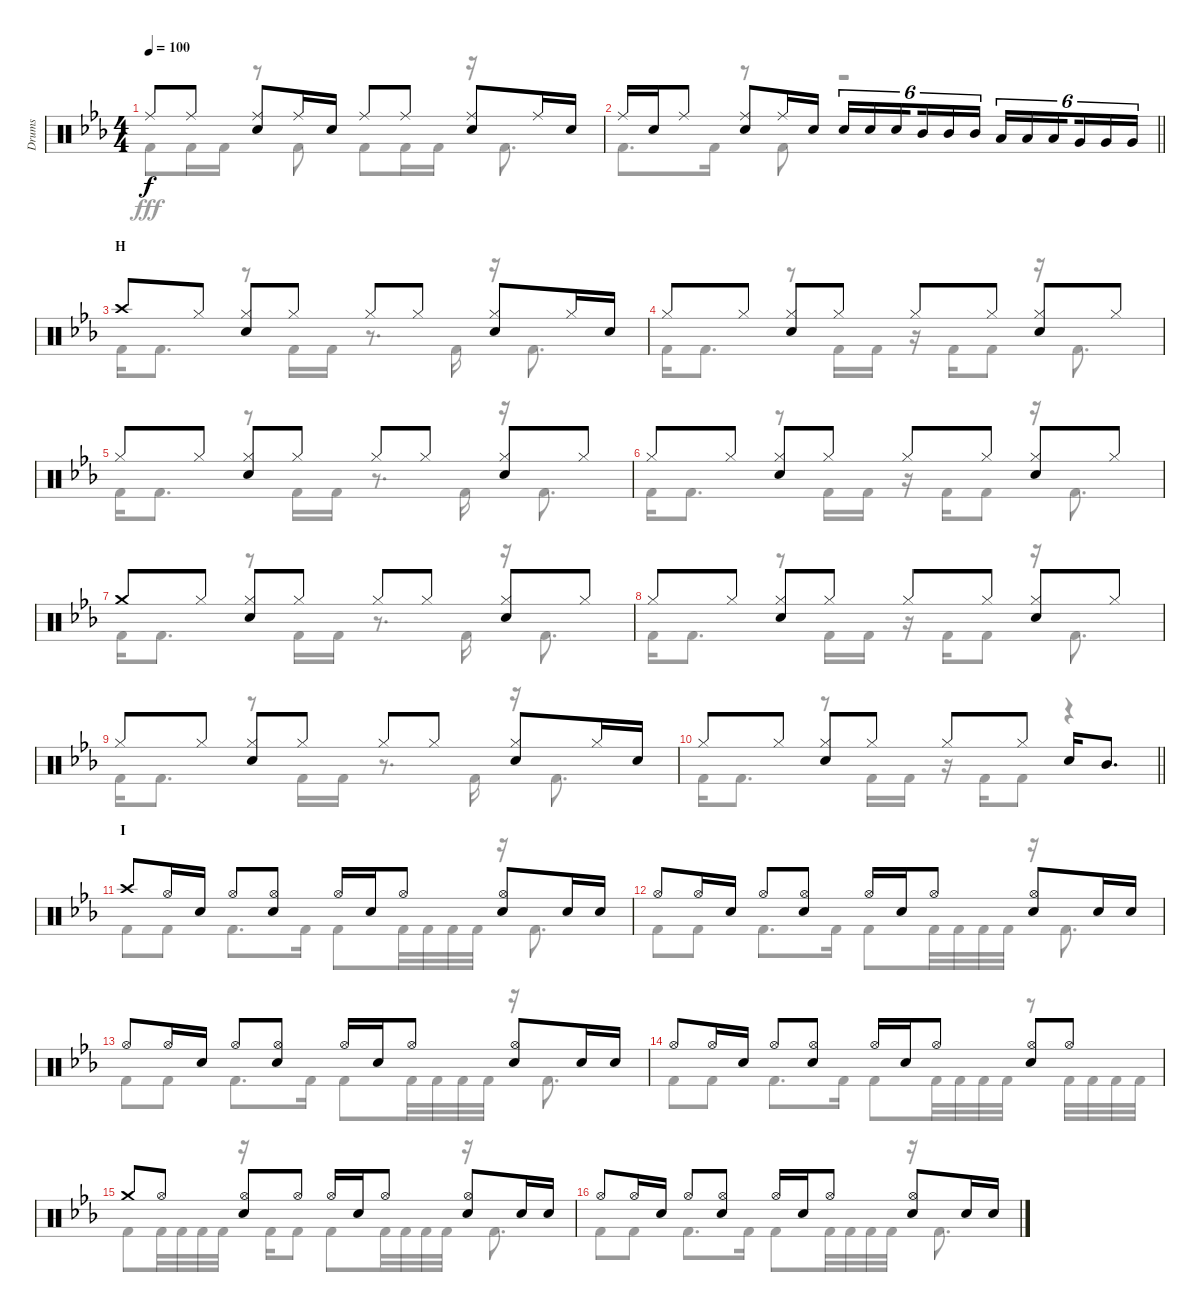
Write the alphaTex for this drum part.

\track ("Drums" "Drums") {instrument percussion}
\staff {score}
\articulation defaults
\voice
\ts (4 4)
\tempo 100
\clef neutral
\ks eb "Ride (middle)".8{dy f} "Ride (middle)".8
("Ride (middle)" "Snare (hit) 2").8 "Ride (middle)".16 "Snare (hit) 2".16 "Ride (middle)".8 "Ride (middle)".8 ("Ride (middle)" "Snare (hit) 2").8 "Ride (middle)".16 "Snare (hit) 2".16 |
\barLineRight lightlight "Ride (middle)".16 "Snare (hit) 2".16 "Ride (middle)".8
("Ride (middle)" "Snare (hit) 2").8 "Ride (middle)".16 "Snare (hit) 2".16 "Snare (hit) 2".16{tu (6 4)} "Snare (hit) 2".16{tu (6 4)} "Snare (hit) 2".16{tu (6 4) beam splitsecondary} "Mid Tom (hit)".16{tu (6 4)} "Mid Tom (hit)".16{tu (6 4)} "Mid Tom (hit)".16{tu (6 4)} "Low Tom (hit)".16{tu (6 4)} "Low Tom (hit)".16{tu (6 4)} "Low Tom (hit)".16{tu (6 4) beam splitsecondary} "Very Low Tom (hit)".16{tu (6 4)} "Very Low Tom (hit)".16{tu (6 4)} "Very Low Tom (hit)".16{tu (6 4)} |
\section ("" "H")
"Crash high (hit)".8 "Hi-Hat (closed)".8 ("Hi-Hat (closed)" "Snare (hit) 2").8 "Hi-Hat (closed)".8 "Hi-Hat (closed)".8 "Hi-Hat (closed)".8 ("Hi-Hat (closed)" "Snare (hit) 2").8 "Hi-Hat (closed)".16 "Snare (hit) 2".16 |
"Hi-Hat (closed)".8 "Hi-Hat (closed)".8 ("Hi-Hat (closed)" "Snare (hit) 2").8 "Hi-Hat (closed)".8 "Hi-Hat (closed)".8 "Hi-Hat (closed)".8 ("Hi-Hat (closed)" "Snare (hit) 2").8 "Hi-Hat (closed)".8 |
"Hi-Hat (closed)".8 "Hi-Hat (closed)".8 ("Hi-Hat (closed)" "Snare (hit) 2").8 "Hi-Hat (closed)".8 "Hi-Hat (closed)".8 "Hi-Hat (closed)".8 ("Hi-Hat (closed)" "Snare (hit) 2").8 "Hi-Hat (closed)".8 |
"Hi-Hat (closed)".8 "Hi-Hat (closed)".8 ("Hi-Hat (closed)" "Snare (hit) 2").8 "Hi-Hat (closed)".8 "Hi-Hat (closed)".8 "Hi-Hat (closed)".8 ("Hi-Hat (closed)" "Snare (hit) 2").8 "Hi-Hat (closed)".8 |
"Crash medium (hit)".8 "Hi-Hat (closed)".8 ("Hi-Hat (closed)" "Snare (hit) 2").8 "Hi-Hat (closed)".8 "Hi-Hat (closed)".8 "Hi-Hat (closed)".8 ("Hi-Hat (closed)" "Snare (hit) 2").8 "Hi-Hat (closed)".8 |
"Hi-Hat (closed)".8 "Hi-Hat (closed)".8 ("Hi-Hat (closed)" "Snare (hit) 2").8 "Hi-Hat (closed)".8 "Hi-Hat (closed)".8 "Hi-Hat (closed)".8 ("Hi-Hat (closed)" "Snare (hit) 2").8 "Hi-Hat (closed)".8 |
"Hi-Hat (closed)".8 "Hi-Hat (closed)".8 ("Hi-Hat (closed)" "Snare (hit) 2").8 "Hi-Hat (closed)".8 "Hi-Hat (closed)".8 "Hi-Hat (closed)".8 ("Hi-Hat (closed)" "Snare (hit) 2").8 "Hi-Hat (closed)".16 "Snare (hit) 2".16 |
\barLineRight lightlight "Hi-Hat (closed)".8 "Hi-Hat (closed)".8
("Hi-Hat (closed)" "Snare (hit) 2").8 "Hi-Hat (closed)".8 "Hi-Hat (closed)".8 "Hi-Hat (closed)".8 "Snare (hit) 2".16 "Mid Tom (hit)".8{d} |
\section ("" "I")
"Crash high (hit)".8 "Hi-Hat (open)".16 "Snare (hit) 2".16 "Hi-Hat (open)".8 ("Hi-Hat (open)" "Snare (hit) 2").8 "Hi-Hat (open)".16 "Snare (hit) 2".16 "Hi-Hat (open)".8 ("Hi-Hat (open)" "Snare (hit) 2").8 "Snare (hit) 2".16 "Snare (hit) 2".16 |
"Hi-Hat (open)".8 "Hi-Hat (open)".16 "Snare (hit) 2".16 "Hi-Hat (open)".8 ("Hi-Hat (open)" "Snare (hit) 2").8 "Hi-Hat (open)".16 "Snare (hit) 2".16 "Hi-Hat (open)".8 ("Hi-Hat (open)" "Snare (hit) 2").8 "Snare (hit) 2".16 "Snare (hit) 2".16 |
"Hi-Hat (open)".8 "Hi-Hat (open)".16 "Snare (hit) 2".16 "Hi-Hat (open)".8 ("Hi-Hat (open)" "Snare (hit) 2").8 "Hi-Hat (open)".16 "Snare (hit) 2".16 "Hi-Hat (open)".8 ("Hi-Hat (open)" "Snare (hit) 2").8 "Snare (hit) 2".16 "Snare (hit) 2".16 |
"Hi-Hat (open)".8 "Hi-Hat (open)".16 "Snare (hit) 2".16 "Hi-Hat (open)".8 ("Hi-Hat (open)" "Snare (hit) 2").8 "Hi-Hat (open)".16 "Snare (hit) 2".16 "Hi-Hat (open)".8 ("Hi-Hat (open)" "Snare (hit) 2").8 "Hi-Hat (open)".8 |
"Crash medium (hit)".8 "Hi-Hat (open)".8 ("Hi-Hat (open)" "Snare (hit) 2").8 "Hi-Hat (open)".8 "Hi-Hat (open)".16 "Snare (hit) 2".16 "Hi-Hat (open)".8 ("Hi-Hat (open)" "Snare (hit) 2").8 "Snare (hit) 2".16 "Snare (hit) 2".16 |
"Hi-Hat (open)".8 "Hi-Hat (open)".16 "Snare (hit) 2".16 "Hi-Hat (open)".8 ("Hi-Hat (open)" "Snare (hit) 2").8 "Hi-Hat (open)".16 "Snare (hit) 2".16 "Hi-Hat (open)".8 ("Hi-Hat (open)" "Snare (hit) 2").8 "Snare (hit) 2".16 "Snare (hit) 2".16
\voice
\clef neutral
\ottava regular
\simile none
\ks eb "Kick (hit) 2".8{dy fff} "Kick (hit) 2".16 "Kick (hit) 2".16
r.8 "Kick (hit) 2".8 "Kick (hit) 2".8 "Kick (hit) 2".16 "Kick (hit) 2".16 r.16 "Kick (hit) 2".8{d} |
\barLineRight lightlight "Kick (hit) 2".8{d} "Kick (hit) 2".16
r.8 "Kick (hit) 2".8 r.2 |
"Kick (hit) 2".16 "Kick (hit) 2".8{d} r.8 "Kick (hit) 2".16 "Kick (hit) 2".16 r.8{d} "Kick (hit) 2".16 r.16 "Kick (hit) 2".8{d} |
"Kick (hit) 2".16 "Kick (hit) 2".8{d} r.8 "Kick (hit) 2".16 "Kick (hit) 2".16 r.16 "Kick (hit) 2".16 "Kick (hit) 2".8 r.16 "Kick (hit) 2".8{d} |
"Kick (hit) 2".16 "Kick (hit) 2".8{d} r.8 "Kick (hit) 2".16 "Kick (hit) 2".16 r.8{d} "Kick (hit) 2".16 r.16 "Kick (hit) 2".8{d} |
"Kick (hit) 2".16 "Kick (hit) 2".8{d} r.8 "Kick (hit) 2".16 "Kick (hit) 2".16 r.16 "Kick (hit) 2".16 "Kick (hit) 2".8 r.16 "Kick (hit) 2".8{d} |
"Kick (hit) 2".16 "Kick (hit) 2".8{d} r.8 "Kick (hit) 2".16 "Kick (hit) 2".16 r.8{d} "Kick (hit) 2".16 r.16 "Kick (hit) 2".8{d} |
"Kick (hit) 2".16 "Kick (hit) 2".8{d} r.8 "Kick (hit) 2".16 "Kick (hit) 2".16 r.16 "Kick (hit) 2".16 "Kick (hit) 2".8 r.16 "Kick (hit) 2".8{d} |
"Kick (hit) 2".16 "Kick (hit) 2".8{d} r.8 "Kick (hit) 2".16 "Kick (hit) 2".16 r.8{d} "Kick (hit) 2".16 r.16 "Kick (hit) 2".8{d} |
\barLineRight lightlight "Kick (hit) 2".16 "Kick (hit) 2".8{d}
r.8 "Kick (hit) 2".16 "Kick (hit) 2".16 r.16 "Kick (hit) 2".16 "Kick (hit) 2".8 r.4 |
"Kick (hit) 2".8 "Kick (hit) 2".8 "Kick (hit) 2".8{d} "Kick (hit) 2".16 "Kick (hit) 2".8 "Kick (hit) 2".32 "Kick (hit) 2".32 "Kick (hit) 2".32 "Kick (hit) 2".32 r.16 "Kick (hit) 2".8{d} |
"Kick (hit) 2".8 "Kick (hit) 2".8 "Kick (hit) 2".8{d} "Kick (hit) 2".16 "Kick (hit) 2".8 "Kick (hit) 2".32 "Kick (hit) 2".32 "Kick (hit) 2".32 "Kick (hit) 2".32 r.16 "Kick (hit) 2".8{d} |
"Kick (hit) 2".8 "Kick (hit) 2".8 "Kick (hit) 2".8{d} "Kick (hit) 2".16 "Kick (hit) 2".8 "Kick (hit) 2".32 "Kick (hit) 2".32 "Kick (hit) 2".32 "Kick (hit) 2".32 r.16 "Kick (hit) 2".8{d} |
"Kick (hit) 2".8 "Kick (hit) 2".8 "Kick (hit) 2".8{d} "Kick (hit) 2".16 "Kick (hit) 2".8 "Kick (hit) 2".32 "Kick (hit) 2".32 "Kick (hit) 2".32 "Kick (hit) 2".32 r.8 "Kick (hit) 2".32 "Kick (hit) 2".32 "Kick (hit) 2".32 "Kick (hit) 2".32 |
"Kick (hit) 2".8 "Kick (hit) 2".32 "Kick (hit) 2".32 "Kick (hit) 2".32 "Kick (hit) 2".32 r.16 "Kick (hit) 2".16 "Kick (hit) 2".8 "Kick (hit) 2".8 "Kick (hit) 2".32 "Kick (hit) 2".32 "Kick (hit) 2".32 "Kick (hit) 2".32 r.16 "Kick (hit) 2".8{d} |
"Kick (hit) 2".8 "Kick (hit) 2".8 "Kick (hit) 2".8{d} "Kick (hit) 2".16 "Kick (hit) 2".8 "Kick (hit) 2".32 "Kick (hit) 2".32 "Kick (hit) 2".32 "Kick (hit) 2".32 r.16 "Kick (hit) 2".8{d}
